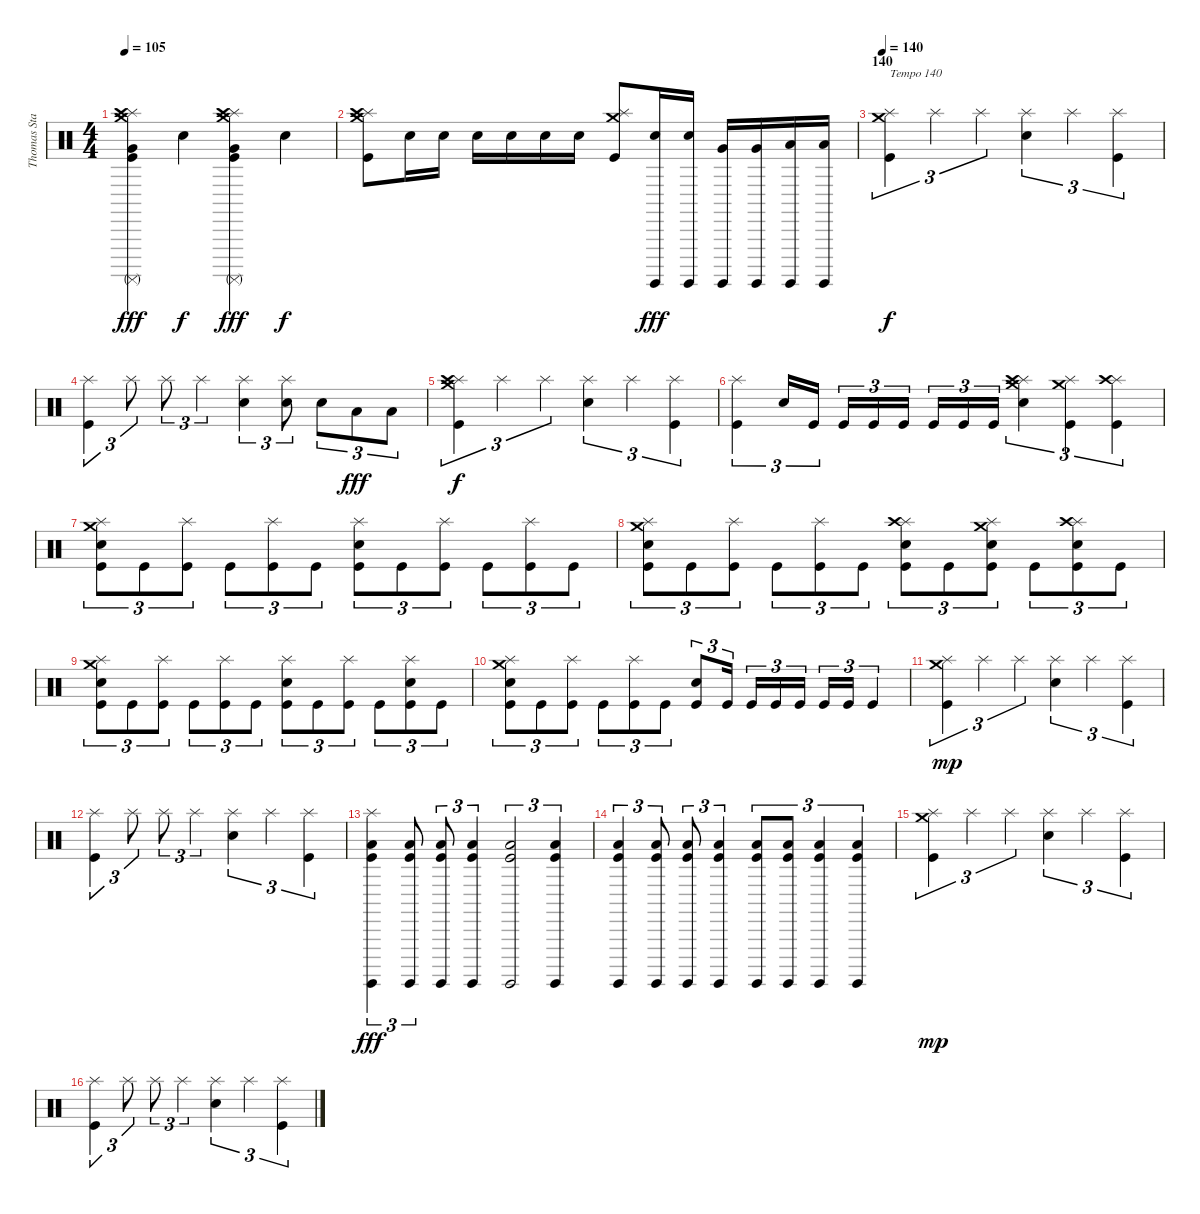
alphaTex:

\track ("Thomas Stauch" "Thomas Sta") {instrument percussion}
\staff {score}
\articulation defaults
\ts (4 4)
\tempo 105
\clef neutral
\ks c
("Crash medium (hit)" "Splash (hit)" "Crash high (hit)" "Surdo (mute)" "Very Low Tom (hit)" "Kick (hit)").4{dy fff} "Electric Snare (hit)".4{dy f} ("Crash medium (hit)" "Splash (hit)" "Crash high (hit)" "Surdo (mute)" "Very Low Tom (hit)" "Kick (hit)").4{dy fff} "Electric Snare (hit)".4{dy f} |
("Crash medium (hit)" "Splash (hit)" "Crash high (hit)" "Kick (hit)").8 "Electric Snare (hit)".16 "Electric Snare (hit)".16 "Electric Snare (hit)".16 "Electric Snare (hit)".16 "Electric Snare (hit)".16 "Electric Snare (hit)".16 ("Crash medium (hit)" "Splash (hit)" "Kick (hit)").8 ("Surdo (hit)" "Electric Snare (hit)").16{dy fff} ("Surdo (hit)" "Electric Snare (hit)").16 ("Surdo (hit)" "Very Low Tom (hit)").16 ("Surdo (hit)" "Very Low Tom (hit)").16 ("Surdo (hit)" "Low Floor Tom (hit)").16 ("Surdo (hit)" "Low Floor Tom (hit)").16 |
\section ("" "140")
\tempo 140
("Crash medium (hit)" "Splash (hit)" "Kick (hit)").4{tu (3 2) txt "Tempo 140" dy f} "Splash (hit)".4{tu (3 2)} "Splash (hit)".4{tu (3 2)} ("Splash (hit)" "Electric Snare (hit)").4{tu (3 2)} "Splash (hit)".4{tu (3 2)} ("Splash (hit)" "Kick (hit)").4{tu (3 2)} |
("Splash (hit)" "Kick (hit)").4{tu (3 2)} "Splash (hit)".8{tu (3 2)} "Splash (hit)".8{tu (3 2)} "Splash (hit)".4{tu (3 2)} ("Splash (hit)" "Electric Snare (hit)").4{tu (3 2)} ("Splash (hit)" "Electric Snare (hit)").8{tu (3 2)} "Electric Snare (hit)".8{tu (3 2)} "Low Floor Tom (hit)".8{tu (3 2) dy fff} "Low Floor Tom (hit)".8{tu (3 2)} |
("Crash medium (hit)" "Splash (hit)" "Crash high (hit)" "Kick (hit)").4{tu (3 2) dy f} "Splash (hit)".4{tu (3 2)} "Splash (hit)".4{tu (3 2)} ("Splash (hit)" "Electric Snare (hit)").4{tu (3 2)} "Splash (hit)".4{tu (3 2)} ("Splash (hit)" "Kick (hit)").4{tu (3 2)} |
("Splash (hit)" "Kick (hit)").4{tu (3 2)} "Electric Snare (hit)".16{tu (3 2)} "Kick (hit)".16{tu (3 2)} "Kick (hit)".16{tu (3 2)} "Kick (hit)".16{tu (3 2)} "Kick (hit)".16{tu (3 2)} "Kick (hit)".16{tu (3 2)} "Kick (hit)".16{tu (3 2)} "Kick (hit)".16{tu (3 2)} ("Crash medium (hit)" "Splash (hit)" "Crash high (hit)" "Electric Snare (hit)").4{tu (3 2)} ("Crash medium (hit)" "Splash (hit)" "Kick (hit)").4{tu (3 2)} ("Splash (hit)" "Crash high (hit)" "Kick (hit)").4{tu (3 2)} |
("Crash medium (hit)" "Splash (hit)" "Electric Snare (hit)" "Kick (hit)").8{tu (3 2)} "Kick (hit)".8{tu (3 2)} ("Splash (hit)" "Kick (hit)").8{tu (3 2)} "Kick (hit)".8{tu (3 2)} ("Splash (hit)" "Kick (hit)").8{tu (3 2)} "Kick (hit)".8{tu (3 2)} ("Splash (hit)" "Electric Snare (hit)" "Kick (hit)").8{tu (3 2)} "Kick (hit)".8{tu (3 2)} ("Splash (hit)" "Kick (hit)").8{tu (3 2)} "Kick (hit)".8{tu (3 2)} ("Splash (hit)" "Kick (hit)").8{tu (3 2)} "Kick (hit)".8{tu (3 2)} |
("Crash medium (hit)" "Splash (hit)" "Electric Snare (hit)" "Kick (hit)").8{tu (3 2)} "Kick (hit)".8{tu (3 2)} ("Splash (hit)" "Kick (hit)").8{tu (3 2)} "Kick (hit)".8{tu (3 2)} ("Splash (hit)" "Kick (hit)").8{tu (3 2)} "Kick (hit)".8{tu (3 2)} ("Splash (hit)" "Crash high (hit)" "Electric Snare (hit)" "Kick (hit)").8{tu (3 2)} "Kick (hit)".8{tu (3 2)} ("Crash medium (hit)" "Splash (hit)" "Electric Snare (hit)" "Kick (hit)").8{tu (3 2)} "Kick (hit)".8{tu (3 2)} ("Splash (hit)" "Crash high (hit)" "Electric Snare (hit)" "Kick (hit)").8{tu (3 2)} "Kick (hit)".8{tu (3 2)} |
("Crash medium (hit)" "Splash (hit)" "Electric Snare (hit)" "Kick (hit)").8{tu (3 2)} "Kick (hit)".8{tu (3 2)} ("Splash (hit)" "Kick (hit)").8{tu (3 2)} "Kick (hit)".8{tu (3 2)} ("Splash (hit)" "Kick (hit)").8{tu (3 2)} "Kick (hit)".8{tu (3 2)} ("Splash (hit)" "Electric Snare (hit)" "Kick (hit)").8{tu (3 2)} "Kick (hit)".8{tu (3 2)} ("Splash (hit)" "Kick (hit)").8{tu (3 2)} "Kick (hit)".8{tu (3 2)} ("Splash (hit)" "Electric Snare (hit)" "Kick (hit)").8{tu (3 2)} "Kick (hit)".8{tu (3 2)} |
("Crash medium (hit)" "Splash (hit)" "Electric Snare (hit)" "Kick (hit)").8{tu (3 2)} "Kick (hit)".8{tu (3 2)} ("Splash (hit)" "Kick (hit)").8{tu (3 2)} "Kick (hit)".8{tu (3 2)} ("Splash (hit)" "Kick (hit)").8{tu (3 2)} "Kick (hit)".8{tu (3 2)} ("Electric Snare (hit)" "Kick (hit)").8{tu (3 2)} "Kick (hit)".16{tu (3 2)} "Kick (hit)".16{tu (3 2)} "Kick (hit)".16{tu (3 2)} "Kick (hit)".16{tu (3 2)} "Kick (hit)".16{tu (3 2)} "Kick (hit)".16{tu (3 2)} "Kick (hit)".4{tu (3 2)} |
("Crash medium (hit)" "Splash (hit)" "Kick (hit)").4{tu (3 2) dy mp} "Splash (hit)".4{tu (3 2)} "Splash (hit)".4{tu (3 2)} ("Splash (hit)" "Electric Snare (hit)").4{tu (3 2)} "Splash (hit)".4{tu (3 2)} ("Splash (hit)" "Kick (hit)").4{tu (3 2)} |
("Splash (hit)" "Kick (hit)").4{tu (3 2)} "Splash (hit)".8{tu (3 2)} "Splash (hit)".8{tu (3 2)} "Splash (hit)".4{tu (3 2)} ("Splash (hit)" "Electric Snare (hit)").4{tu (3 2)} "Splash (hit)".4{tu (3 2)} ("Splash (hit)" "Kick (hit)").4{tu (3 2)} |
("Splash (hit)" "Surdo (hit)" "Low Floor Tom (hit)" "Kick (hit)").4{tu (3 2) dy fff} ("Surdo (hit)" "Low Floor Tom (hit)" "Kick (hit)").8{tu (3 2)} ("Surdo (hit)" "Low Floor Tom (hit)" "Kick (hit)").8{tu (3 2)} ("Surdo (hit)" "Low Floor Tom (hit)" "Kick (hit)").4{tu (3 2)} ("Surdo (hit)" "Low Floor Tom (hit)" "Kick (hit)").2{tu (3 2)} ("Surdo (hit)" "Low Floor Tom (hit)" "Kick (hit)").4{tu (3 2)} |
("Surdo (hit)" "Low Floor Tom (hit)" "Kick (hit)").4{tu (3 2)} ("Surdo (hit)" "Low Floor Tom (hit)" "Kick (hit)").8{tu (3 2)} ("Surdo (hit)" "Low Floor Tom (hit)" "Kick (hit)").8{tu (3 2)} ("Surdo (hit)" "Low Floor Tom (hit)" "Kick (hit)").4{tu (3 2)} ("Surdo (hit)" "Low Floor Tom (hit)" "Kick (hit)").8{tu (3 2)} ("Surdo (hit)" "Low Floor Tom (hit)" "Kick (hit)").8{tu (3 2)} ("Surdo (hit)" "Low Floor Tom (hit)" "Kick (hit)").4{tu (3 2)} ("Surdo (hit)" "Low Floor Tom (hit)" "Kick (hit)").4{tu (3 2)} |
("Crash medium (hit)" "Splash (hit)" "Kick (hit)").4{tu (3 2) dy mp} "Splash (hit)".4{tu (3 2)} "Splash (hit)".4{tu (3 2)} ("Splash (hit)" "Electric Snare (hit)").4{tu (3 2)} "Splash (hit)".4{tu (3 2)} ("Splash (hit)" "Kick (hit)").4{tu (3 2)} |
("Splash (hit)" "Kick (hit)").4{tu (3 2)} "Splash (hit)".8{tu (3 2)} "Splash (hit)".8{tu (3 2)} "Splash (hit)".4{tu (3 2)} ("Splash (hit)" "Electric Snare (hit)").4{tu (3 2)} "Splash (hit)".4{tu (3 2)} ("Splash (hit)" "Kick (hit)").4{tu (3 2)}
